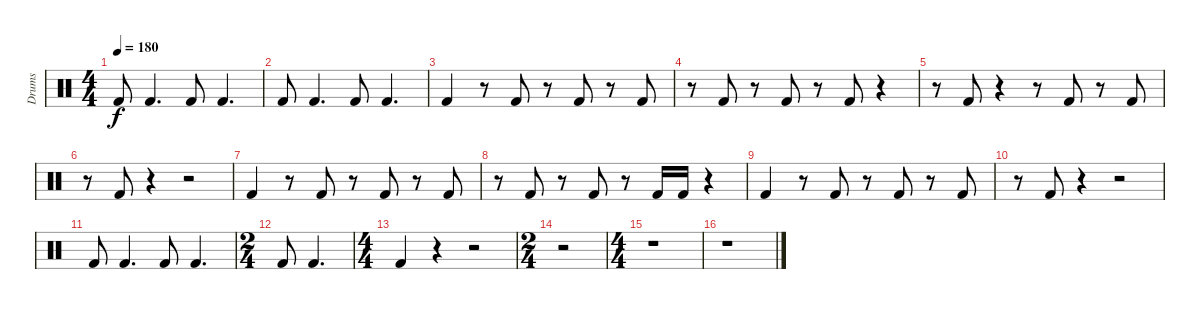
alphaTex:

\track ("Drums" "Drums") {instrument percussion}
\staff {score}
\articulation defaults
\ts (4 4)
\tempo 180
\clef neutral
\ks c "Kick (hit) 2".8{dy f} "Kick (hit) 2".4{d} "Kick (hit) 2".8 "Kick (hit) 2".4{d}
|
"Kick (hit) 2".8 "Kick (hit) 2".4{d} "Kick (hit) 2".8 "Kick (hit) 2".4{d} |
"Kick (hit) 2".4 r.8 "Kick (hit) 2".8 r.8 "Kick (hit) 2".8 r.8 "Kick (hit) 2".8 |
r.8 "Kick (hit) 2".8 r.8 "Kick (hit) 2".8 r.8 "Kick (hit) 2".8 r.4 |
r.8 "Kick (hit) 2".8 r.4 r.8 "Kick (hit) 2".8 r.8 "Kick (hit) 2".8 |
r.8 "Kick (hit) 2".8 r.4 r.2 |
"Kick (hit) 2".4 r.8 "Kick (hit) 2".8 r.8 "Kick (hit) 2".8 r.8 "Kick (hit) 2".8 |
r.8 "Kick (hit) 2".8 r.8 "Kick (hit) 2".8 r.8 "Kick (hit) 2".16 "Kick (hit) 2".16 r.4 |
"Kick (hit) 2".4 r.8 "Kick (hit) 2".8 r.8 "Kick (hit) 2".8 r.8 "Kick (hit) 2".8 |
r.8 "Kick (hit) 2".8 r.4 r.2 |
"Kick (hit) 2".8 "Kick (hit) 2".4{d} "Kick (hit) 2".8 "Kick (hit) 2".4{d} |
\ts (2 4)
"Kick (hit) 2".8 "Kick (hit) 2".4{d} |
\ts (4 4)
"Kick (hit) 2".4 r.4 r.2 |
\ts (2 4)
r.2 |
\ts (4 4)
r.1 |
r.1
